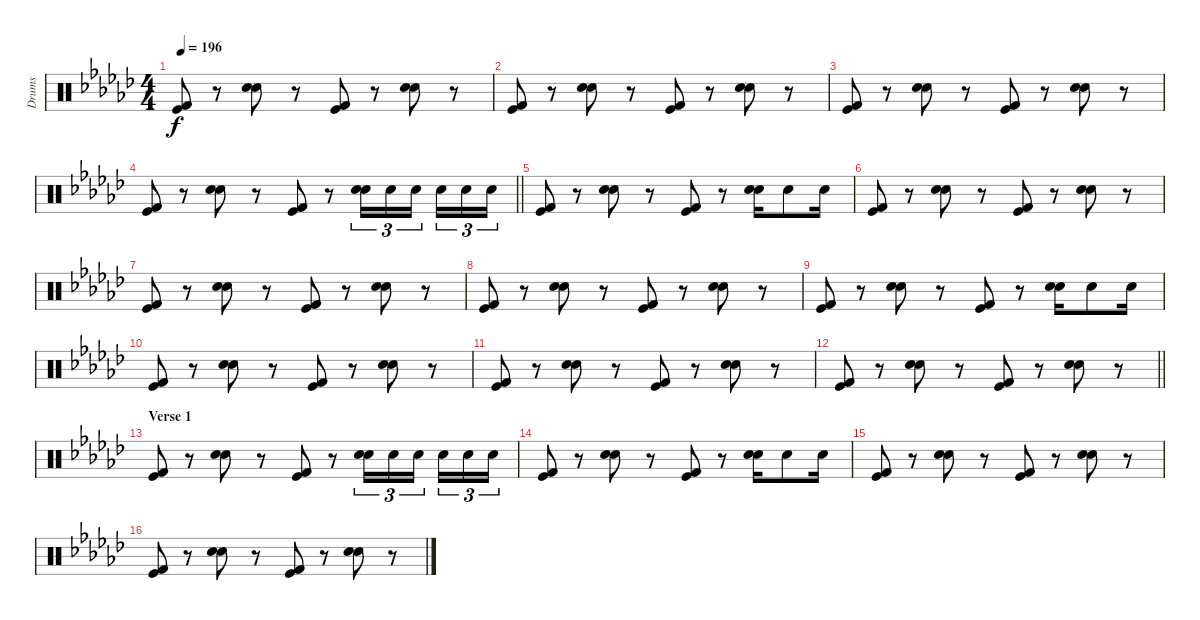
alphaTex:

\track ("Drums" "Drums") {instrument percussion}
\staff {score}
\articulation defaults
\ts (4 4)
\tempo 196
\clef neutral
\ks gb
("Kick (hit) 2" "Kick (hit)").8{dy f} r.8 ("Snare (hit) 2" "Electric Snare (hit)").8 r.8 ("Kick (hit) 2" "Kick (hit)").8 r.8 ("Snare (hit) 2" "Electric Snare (hit)").8 r.8 |
("Kick (hit) 2" "Kick (hit)").8 r.8 ("Snare (hit) 2" "Electric Snare (hit)").8 r.8 ("Kick (hit) 2" "Kick (hit)").8 r.8 ("Snare (hit) 2" "Electric Snare (hit)").8 r.8 |
("Kick (hit) 2" "Kick (hit)").8 r.8 ("Snare (hit) 2" "Electric Snare (hit)").8 r.8 ("Kick (hit) 2" "Kick (hit)").8 r.8 ("Snare (hit) 2" "Electric Snare (hit)").8 r.8 |
\barLineRight lightlight
("Kick (hit) 2" "Kick (hit)").8 r.8 ("Snare (hit) 2" "Electric Snare (hit)").8 r.8 ("Kick (hit) 2" "Kick (hit)").8 r.8 ("Hand Clap (hit)" "Electric Snare (hit)").16{tu (3 2)} "Hand Clap (hit)".16{tu (3 2)} "Hand Clap (hit)".16{tu (3 2) beam splitsecondary} "Hand Clap (hit)".16{tu (3 2)} "Hand Clap (hit)".16{tu (3 2)} "Hand Clap (hit)".16{tu (3 2)} |
("Kick (hit) 2" "Kick (hit)").8 r.8 ("Snare (hit) 2" "Electric Snare (hit)").8 r.8 ("Kick (hit) 2" "Kick (hit)").8 r.8 ("Snare (hit) 2" "Electric Snare (hit)").16 "Hand Clap (hit)".8 "Hand Clap (hit)".16 |
("Kick (hit) 2" "Kick (hit)").8 r.8 ("Snare (hit) 2" "Electric Snare (hit)").8 r.8 ("Kick (hit) 2" "Kick (hit)").8 r.8 ("Snare (hit) 2" "Electric Snare (hit)").8 r.8 |
("Kick (hit) 2" "Kick (hit)").8 r.8 ("Snare (hit) 2" "Electric Snare (hit)").8 r.8 ("Kick (hit) 2" "Kick (hit)").8 r.8 ("Snare (hit) 2" "Electric Snare (hit)").8 r.8 |
("Kick (hit) 2" "Kick (hit)").8 r.8 ("Snare (hit) 2" "Electric Snare (hit)").8 r.8 ("Kick (hit) 2" "Kick (hit)").8 r.8 ("Snare (hit) 2" "Electric Snare (hit)").8 r.8 |
("Kick (hit) 2" "Kick (hit)").8 r.8 ("Snare (hit) 2" "Electric Snare (hit)").8 r.8 ("Kick (hit) 2" "Kick (hit)").8 r.8 ("Snare (hit) 2" "Electric Snare (hit)").16 "Hand Clap (hit)".8 "Hand Clap (hit)".16 |
("Kick (hit) 2" "Kick (hit)").8 r.8 ("Snare (hit) 2" "Electric Snare (hit)").8 r.8 ("Kick (hit) 2" "Kick (hit)").8 r.8 ("Snare (hit) 2" "Electric Snare (hit)").8 r.8 |
("Kick (hit) 2" "Kick (hit)").8 r.8 ("Snare (hit) 2" "Electric Snare (hit)").8 r.8 ("Kick (hit) 2" "Kick (hit)").8 r.8 ("Snare (hit) 2" "Electric Snare (hit)").8 r.8 |
\barLineRight lightlight
("Kick (hit) 2" "Kick (hit)").8 r.8 ("Snare (hit) 2" "Electric Snare (hit)").8 r.8 ("Kick (hit) 2" "Kick (hit)").8 r.8 ("Snare (hit) 2" "Electric Snare (hit)").8 r.8 |
\section ("" "Verse 1")
("Kick (hit) 2" "Kick (hit)").8 r.8 ("Snare (hit) 2" "Electric Snare (hit)").8 r.8 ("Kick (hit) 2" "Kick (hit)").8 r.8 ("Hand Clap (hit)" "Electric Snare (hit)").16{tu (3 2)} "Hand Clap (hit)".16{tu (3 2)} "Hand Clap (hit)".16{tu (3 2) beam splitsecondary} "Hand Clap (hit)".16{tu (3 2)} "Hand Clap (hit)".16{tu (3 2)} "Hand Clap (hit)".16{tu (3 2)} |
("Kick (hit) 2" "Kick (hit)").8 r.8 ("Snare (hit) 2" "Electric Snare (hit)").8 r.8 ("Kick (hit) 2" "Kick (hit)").8 r.8 ("Snare (hit) 2" "Electric Snare (hit)").16 "Hand Clap (hit)".8 "Hand Clap (hit)".16 |
("Kick (hit) 2" "Kick (hit)").8 r.8 ("Snare (hit) 2" "Electric Snare (hit)").8 r.8 ("Kick (hit) 2" "Kick (hit)").8 r.8 ("Snare (hit) 2" "Electric Snare (hit)").8 r.8 |
("Kick (hit) 2" "Kick (hit)").8 r.8 ("Snare (hit) 2" "Electric Snare (hit)").8 r.8 ("Kick (hit) 2" "Kick (hit)").8 r.8 ("Snare (hit) 2" "Electric Snare (hit)").8 r.8
